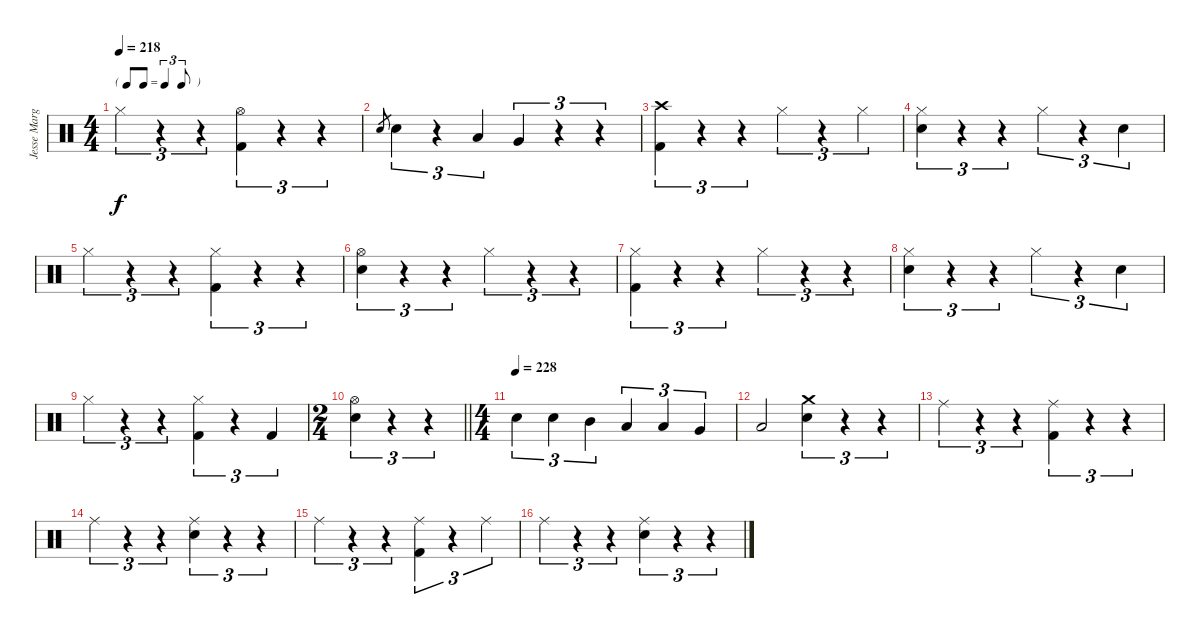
\track ("Jesse Margera" "Jesse Marg") {instrument percussion}
\staff {score}
\articulation defaults
\ts (4 4)
\tf triplet8th
\tempo 218
\clef neutral
\ks c "Hi-Hat (closed)".4{tu (3 2) dy f}
r.4{tu (3 2)} r.4{tu (3 2)} ("Hi-Hat (open)" "Kick (hit) 2").4{tu (3 2)} r.4{tu (3 2)} r.4{tu (3 2)} |
"Electric Snare (hit)".8{gr} "Electric Snare (hit)".4{tu (3 2)} r.4{tu (3 2)} "Low Floor Tom (hit)".4{tu (3 2)} "Very Low Tom (hit)".4{tu (3 2)} r.4{tu (3 2)} r.4{tu (3 2)} |
("Crash high (hit)" "Kick (hit) 2").4{tu (3 2)} r.4{tu (3 2)} r.4{tu (3 2)} "Hi-Hat (closed)".4{tu (3 2)} r.4{tu (3 2)} "Hi-Hat (closed)".4{tu (3 2)} |
("Hi-Hat (closed)" "Electric Snare (hit)").4{tu (3 2)} r.4{tu (3 2)} r.4{tu (3 2)} "Hi-Hat (closed)".4{tu (3 2)} r.4{tu (3 2)} "Electric Snare (hit)".4{tu (3 2)} |
"Hi-Hat (closed)".4{tu (3 2)} r.4{tu (3 2)} r.4{tu (3 2)} ("Hi-Hat (closed)" "Kick (hit) 2").4{tu (3 2)} r.4{tu (3 2)} r.4{tu (3 2)} |
("Hi-Hat (open)" "Electric Snare (hit)").4{tu (3 2)} r.4{tu (3 2)} r.4{tu (3 2)} "Hi-Hat (closed)".4{tu (3 2)} r.4{tu (3 2)} r.4{tu (3 2)} |
("Hi-Hat (closed)" "Kick (hit) 2").4{tu (3 2)} r.4{tu (3 2)} r.4{tu (3 2)} "Hi-Hat (closed)".4{tu (3 2)} r.4{tu (3 2)} r.4{tu (3 2)} |
("Hi-Hat (closed)" "Electric Snare (hit)").4{tu (3 2)} r.4{tu (3 2)} r.4{tu (3 2)} "Hi-Hat (closed)".4{tu (3 2)} r.4{tu (3 2)} "Electric Snare (hit)".4{tu (3 2)} |
"Hi-Hat (closed)".4{tu (3 2)} r.4{tu (3 2)} r.4{tu (3 2)} ("Hi-Hat (closed)" "Kick (hit) 2").4{tu (3 2)} r.4{tu (3 2)} "Kick (hit) 2".4{tu (3 2)} |
\ts (2 4)
\barLineRight lightlight
("Hi-Hat (open)" "Electric Snare (hit)").4{tu (3 2)} r.4{tu (3 2)} r.4{tu (3 2)} |
\ts (4 4)
\section ("" "")
\tempo (228)
"Electric Snare (hit)".4{tu (3 2)} "Electric Snare (hit)".4{tu (3 2)} "Mid Tom (hit)".4{tu (3 2)} "Low Tom (hit)".4{tu (3 2)} "Low Tom (hit)".4{tu (3 2)} "Very Low Tom (hit)".4{tu (3 2)} |
"Low Floor Tom (hit)".2 ("Crash medium (hit)" "Electric Snare (hit)").4{tu (3 2)} r.4{tu (3 2)} r.4{tu (3 2)} |
"Ride (middle)".4{tu (3 2)} r.4{tu (3 2)} r.4{tu (3 2)} ("Ride (middle)" "Kick (hit) 2").4{tu (3 2)} r.4{tu (3 2)} r.4{tu (3 2)} |
"Ride (middle)".4{tu (3 2)} r.4{tu (3 2)} r.4{tu (3 2)} ("Ride (middle)" "Electric Snare (hit)").4{tu (3 2)} r.4{tu (3 2)} r.4{tu (3 2)} |
"Ride (middle)".4{tu (3 2)} r.4{tu (3 2)} r.4{tu (3 2)} ("Ride (middle)" "Kick (hit) 2").4{tu (3 2)} r.4{tu (3 2)} "Ride (middle)".4{tu (3 2)} |
"Ride (middle)".4{tu (3 2)} r.4{tu (3 2)} r.4{tu (3 2)} ("Ride (middle)" "Electric Snare (hit)").4{tu (3 2)} r.4{tu (3 2)} r.4{tu (3 2)}
